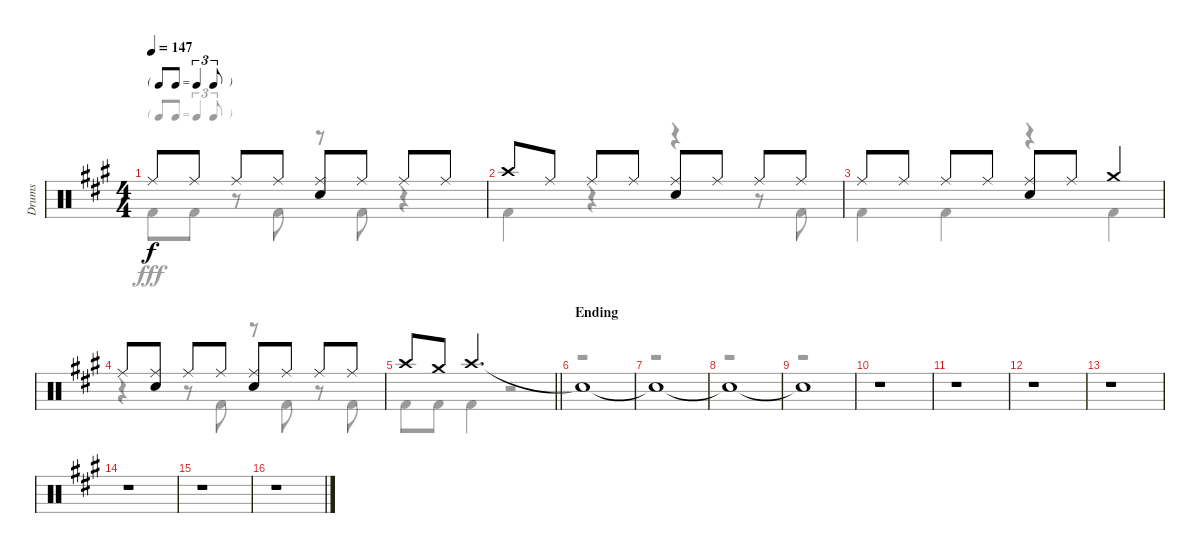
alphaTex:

\track ("Drums" "Drums") {instrument percussion}
\staff {score}
\articulation defaults
\voice
\ts (4 4)
\tf triplet8th
\tempo 147
\clef neutral
\ks a "Ride (middle)".8{dy f} "Ride (middle)".8 "Ride (middle)".8 "Ride (middle)".8
("Ride (middle)" "Snare (hit) 2").8 "Ride (middle)".8 "Ride (middle)".8 "Ride (middle)".8 |
"Crash high (hit)".8 "Ride (middle)".8 "Ride (middle)".8 "Ride (middle)".8 ("Ride (middle)" "Snare (hit) 2").8 "Ride (middle)".8 "Ride (middle)".8 "Ride (middle)".8 |
"Ride (middle)".8 "Ride (middle)".8 "Ride (middle)".8 "Ride (middle)".8 ("Ride (middle)" "Snare (hit) 2").8 "Ride (middle)".8 "Crash medium (hit)".4 |
"Ride (middle)".8 ("Ride (middle)" "Snare (hit) 2").8 "Ride (middle)".8 "Ride (middle)".8 ("Ride (middle)" "Snare (hit) 2").8 "Ride (middle)".8 "Ride (middle)".8 "Ride (middle)".8 |
\barLineRight lightlight "Crash high (hit)".8 "Crash medium (hit)".8 "Crash high (hit)".2{d}
|
\section ("" "Ending")
"Snare (hit)"{t}.1 |
"Snare (hit)"{t}.1 |
"Snare (hit)"{t}.1 |
"Snare (hit)"{t}.1 |
r.1 |
r.1 |
r.1 |
r.1 |
r.1 |
r.1 |
r.1
\voice
\clef neutral
\ottava regular
\simile none
\ks a "Kick (hit) 2".8{dy fff} "Kick (hit) 2".8
r.8 "Kick (hit) 2".8 r.8 "Kick (hit) 2".8 r.4 |
"Kick (hit) 2".4 r.4 r.4 r.8 "Kick (hit) 2".8 |
"Kick (hit) 2".4 "Kick (hit) 2".4 r.4 "Kick (hit) 2".4 |
r.4 r.8 "Kick (hit) 2".8 r.8 "Kick (hit) 2".8 r.8 "Kick (hit) 2".8 |
\barLineRight lightlight "Kick (hit) 2".8 "Kick (hit) 2".8 "Kick (hit) 2".4
r.2 |
r.1 |
r.1 |
r.1 |
r.1 |
r.1 |
r.1 |
r.1 |
r.1 |
r.1 |
r.1 |
r.1
